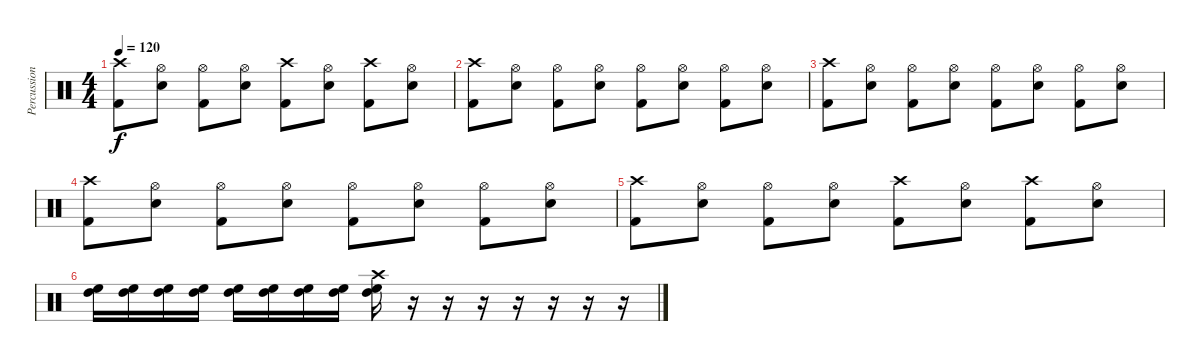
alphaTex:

\track ("Percussion" "Percussion") {instrument percussion}
\staff {score}
\articulation defaults
\ts (4 4)
\tempo 120
\clef neutral
\ks c
("Crash high (hit)" "Kick (hit) 2").8{dy f} ("Hi-Hat (open)" "Snare (hit) 2").8 ("Hi-Hat (open)" "Kick (hit) 2").8 ("Hi-Hat (open)" "Snare (hit) 2").8 ("Crash high (hit)" "Kick (hit) 2").8 ("Hi-Hat (open)" "Snare (hit) 2").8 ("Crash high (hit)" "Kick (hit) 2").8 ("Hi-Hat (open)" "Snare (hit) 2").8 |
("Crash high (hit)" "Kick (hit) 2").8 ("Hi-Hat (open)" "Snare (hit) 2").8 ("Hi-Hat (open)" "Kick (hit) 2").8 ("Hi-Hat (open)" "Snare (hit) 2").8 ("Hi-Hat (open)" "Kick (hit) 2").8 ("Hi-Hat (open)" "Snare (hit) 2").8 ("Hi-Hat (open)" "Kick (hit) 2").8 ("Hi-Hat (open)" "Snare (hit) 2").8 |
("Crash high (hit)" "Kick (hit) 2").8 ("Hi-Hat (open)" "Snare (hit) 2").8 ("Hi-Hat (open)" "Kick (hit) 2").8 ("Hi-Hat (open)" "Snare (hit) 2").8 ("Hi-Hat (open)" "Kick (hit) 2").8 ("Hi-Hat (open)" "Snare (hit) 2").8 ("Hi-Hat (open)" "Kick (hit) 2").8 ("Hi-Hat (open)" "Snare (hit) 2").8 |
("Crash high (hit)" "Kick (hit) 2").8 ("Hi-Hat (open)" "Snare (hit) 2").8 ("Hi-Hat (open)" "Kick (hit) 2").8 ("Hi-Hat (open)" "Snare (hit) 2").8 ("Hi-Hat (open)" "Kick (hit) 2").8 ("Hi-Hat (open)" "Snare (hit) 2").8 ("Hi-Hat (open)" "Kick (hit) 2").8 ("Hi-Hat (open)" "Snare (hit) 2").8 |
("Crash high (hit)" "Kick (hit) 2").8 ("Hi-Hat (open)" "Snare (hit) 2").8 ("Hi-Hat (open)" "Kick (hit) 2").8 ("Hi-Hat (open)" "Snare (hit) 2").8 ("Crash high (hit)" "Kick (hit) 2").8 ("Hi-Hat (open)" "Snare (hit) 2").8 ("Crash high (hit)" "Kick (hit) 2").8 ("Hi-Hat (open)" "Snare (hit) 2").8 |
("High Floor Tom (hit)" "High Tom (hit)").16 ("High Floor Tom (hit)" "High Tom (hit)").16 ("High Floor Tom (hit)" "High Tom (hit)").16 ("High Floor Tom (hit)" "High Tom (hit)").16 ("High Floor Tom (hit)" "High Tom (hit)").16 ("High Floor Tom (hit)" "High Tom (hit)").16 ("High Floor Tom (hit)" "High Tom (hit)").16 ("High Floor Tom (hit)" "High Tom (hit)").16 ("Crash high (hit)" "High Floor Tom (hit)" "High Tom (hit)").16 r.16 r.16 r.16 r.16 r.16 r.16 r.16
